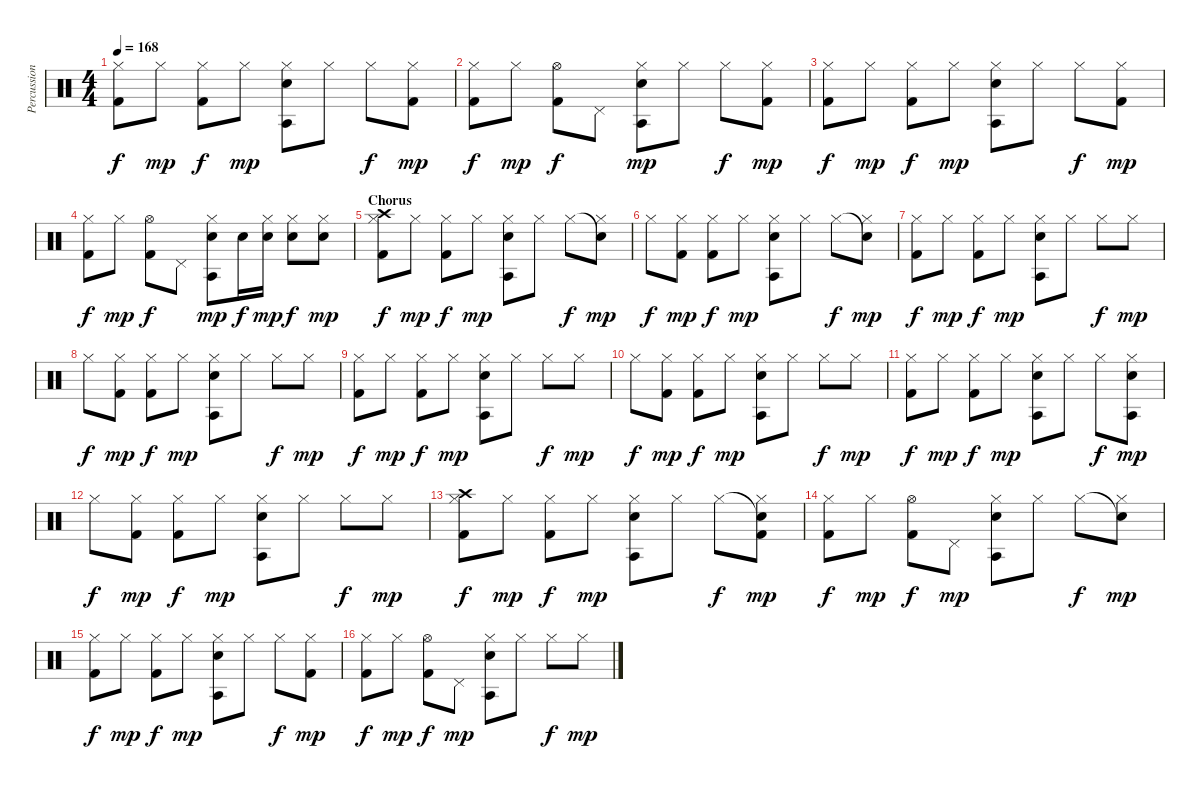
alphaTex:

\track ("Percussion" "Percussion") {instrument percussion}
\staff {score}
\articulation defaults
\ts (4 4)
\tempo 168
\clef neutral
\ks c
("Hi-Hat (closed)" "Kick (hit) 2").8{dy f} "Hi-Hat (closed)".8{dy mp} ("Hi-Hat (closed)" "Kick (hit) 2").8{dy f} "Hi-Hat (closed)".8{dy mp} ("Hi-Hat (closed)" "Agogo tow (hit)" "Electric Snare (hit)").8 "Hi-Hat (closed)".8 "Hi-Hat (closed)".8{dy f} ("Hi-Hat (closed)" "Kick (hit) 2").8{dy mp} |
("Hi-Hat (closed)" "Kick (hit) 2").8{dy f} "Hi-Hat (closed)".8{dy mp} ("Hi-Hat (open)" "Kick (hit) 2").8{dy f} "Pedal Hi-Hat (hit)".8 ("Hi-Hat (closed)" "Agogo tow (hit)" "Electric Snare (hit)").8{dy mp} "Hi-Hat (closed)".8 "Hi-Hat (closed)".8{dy f} ("Hi-Hat (closed)" "Kick (hit) 2").8{dy mp} |
("Hi-Hat (closed)" "Kick (hit) 2").8{dy f} "Hi-Hat (closed)".8{dy mp} ("Hi-Hat (closed)" "Kick (hit) 2").8{dy f} "Hi-Hat (closed)".8{dy mp} ("Hi-Hat (closed)" "Agogo tow (hit)" "Electric Snare (hit)").8 "Hi-Hat (closed)".8 "Hi-Hat (closed)".8{dy f} ("Hi-Hat (closed)" "Kick (hit) 2").8{dy mp} |
("Hi-Hat (closed)" "Kick (hit) 2").8{dy f} "Hi-Hat (closed)".8{dy mp} ("Hi-Hat (open)" "Kick (hit) 2").8{dy f} "Pedal Hi-Hat (hit)".8 ("Hi-Hat (closed)" "Agogo tow (hit)" "Electric Snare (hit)").8{dy mp} "Electric Snare (hit)".16{dy f} ("Hi-Hat (closed)" "Electric Snare (hit)").16{dy mp} ("Hi-Hat (closed)" "Electric Snare (hit)").8{dy f} ("Hi-Hat (closed)" "Electric Snare (hit)").8{dy mp} |
\section ("" "Chorus")
("Crash high (hit)" "Hi-Hat (closed)" "Kick (hit) 2").8{dy f} "Hi-Hat (closed)".8{dy mp} ("Hi-Hat (closed)" "Kick (hit) 2").8{dy f} "Hi-Hat (closed)".8{dy mp} ("Hi-Hat (closed)" "Agogo tow (hit)" "Electric Snare (hit)").8 "Hi-Hat (closed)".8 "Hi-Hat (closed)".8{dy f} ("Snare (hit)"{t} "Hi-Hat (closed)").8{dy mp} |
"Hi-Hat (closed)".8{dy f} ("Hi-Hat (closed)" "Kick (hit) 2").8{dy mp} ("Hi-Hat (closed)" "Kick (hit) 2").8{dy f} "Hi-Hat (closed)".8{dy mp} ("Hi-Hat (closed)" "Agogo tow (hit)" "Electric Snare (hit)").8 "Hi-Hat (closed)".8 "Hi-Hat (closed)".8{dy f} ("Snare (hit)"{t} "Hi-Hat (closed)").8{dy mp} |
("Hi-Hat (closed)" "Kick (hit) 2").8{dy f} "Hi-Hat (closed)".8{dy mp} ("Hi-Hat (closed)" "Kick (hit) 2").8{dy f} "Hi-Hat (closed)".8{dy mp} ("Hi-Hat (closed)" "Agogo tow (hit)" "Electric Snare (hit)").8 "Hi-Hat (closed)".8 "Hi-Hat (closed)".8{dy f} "Hi-Hat (closed)".8{dy mp} |
"Hi-Hat (closed)".8{dy f} ("Hi-Hat (closed)" "Kick (hit) 2").8{dy mp} ("Hi-Hat (closed)" "Kick (hit) 2").8{dy f} "Hi-Hat (closed)".8{dy mp} ("Hi-Hat (closed)" "Agogo tow (hit)" "Electric Snare (hit)").8 "Hi-Hat (closed)".8 "Hi-Hat (closed)".8{dy f} "Hi-Hat (closed)".8{dy mp} |
("Hi-Hat (closed)" "Kick (hit) 2").8{dy f} "Hi-Hat (closed)".8{dy mp} ("Hi-Hat (closed)" "Kick (hit) 2").8{dy f} "Hi-Hat (closed)".8{dy mp} ("Hi-Hat (closed)" "Agogo tow (hit)" "Electric Snare (hit)").8 "Hi-Hat (closed)".8 "Hi-Hat (closed)".8{dy f} "Hi-Hat (closed)".8{dy mp} |
"Hi-Hat (closed)".8{dy f} ("Hi-Hat (closed)" "Kick (hit) 2").8{dy mp} ("Hi-Hat (closed)" "Kick (hit) 2").8{dy f} "Hi-Hat (closed)".8{dy mp} ("Hi-Hat (closed)" "Agogo tow (hit)" "Electric Snare (hit)").8 "Hi-Hat (closed)".8 "Hi-Hat (closed)".8{dy f} "Hi-Hat (closed)".8{dy mp} |
("Hi-Hat (closed)" "Kick (hit) 2").8{dy f} "Hi-Hat (closed)".8{dy mp} ("Hi-Hat (closed)" "Kick (hit) 2").8{dy f} "Hi-Hat (closed)".8{dy mp} ("Hi-Hat (closed)" "Agogo tow (hit)" "Electric Snare (hit)").8 "Hi-Hat (closed)".8 "Hi-Hat (closed)".8{dy f} ("Hi-Hat (closed)" "Agogo tow (hit)" "Electric Snare (hit)").8{dy mp} |
"Hi-Hat (closed)".8{dy f} ("Hi-Hat (closed)" "Kick (hit) 2").8{dy mp} ("Hi-Hat (closed)" "Kick (hit) 2").8{dy f} "Hi-Hat (closed)".8{dy mp} ("Hi-Hat (closed)" "Agogo tow (hit)" "Electric Snare (hit)").8 "Hi-Hat (closed)".8 "Hi-Hat (closed)".8{dy f} "Hi-Hat (closed)".8{dy mp} |
("Crash high (hit)" "Hi-Hat (closed)" "Kick (hit) 2").8{dy f} "Hi-Hat (closed)".8{dy mp} ("Hi-Hat (closed)" "Kick (hit) 2").8{dy f} "Hi-Hat (closed)".8{dy mp} ("Hi-Hat (closed)" "Agogo tow (hit)" "Electric Snare (hit)").8 "Hi-Hat (closed)".8 "Hi-Hat (closed)".8{dy f} ("Snare (hit)"{t} "Hi-Hat (closed)" "Kick (hit) 2").8{dy mp} |
("Hi-Hat (closed)" "Kick (hit) 2").8{dy f} "Hi-Hat (closed)".8{dy mp} ("Hi-Hat (open)" "Kick (hit) 2").8{dy f} "Pedal Hi-Hat (hit)".8{dy mp} ("Hi-Hat (closed)" "Agogo tow (hit)" "Electric Snare (hit)").8 "Hi-Hat (closed)".8 "Hi-Hat (closed)".8{dy f} ("Snare (hit)"{t} "Hi-Hat (closed)").8{dy mp} |
("Hi-Hat (closed)" "Kick (hit) 2").8{dy f} "Hi-Hat (closed)".8{dy mp} ("Hi-Hat (closed)" "Kick (hit) 2").8{dy f} "Hi-Hat (closed)".8{dy mp} ("Hi-Hat (closed)" "Agogo tow (hit)" "Electric Snare (hit)").8 "Hi-Hat (closed)".8 "Hi-Hat (closed)".8{dy f} ("Hi-Hat (closed)" "Kick (hit) 2").8{dy mp} |
("Hi-Hat (closed)" "Kick (hit) 2").8{dy f} "Hi-Hat (closed)".8{dy mp} ("Hi-Hat (open)" "Kick (hit) 2").8{dy f} "Pedal Hi-Hat (hit)".8{dy mp} ("Hi-Hat (closed)" "Agogo tow (hit)" "Electric Snare (hit)").8 "Hi-Hat (closed)".8 "Hi-Hat (closed)".8{dy f} "Hi-Hat (closed)".8{dy mp}
